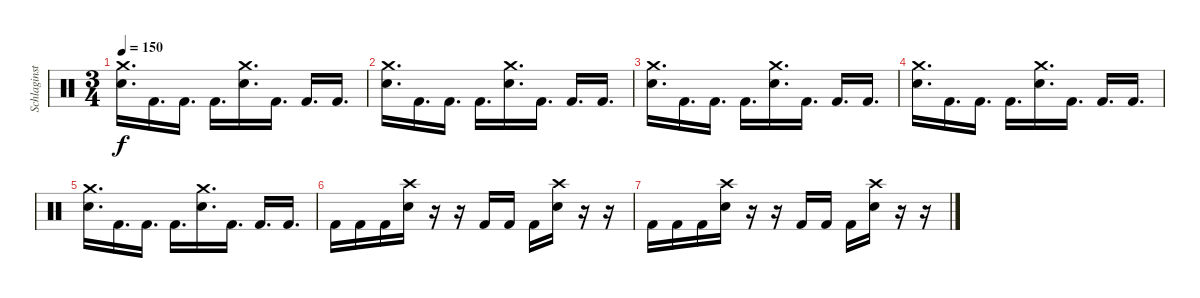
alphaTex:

\track ("Schlaginstrumente - Auswahl" "Schlaginst") {instrument percussion}
\staff {score}
\articulation defaults
\ts (3 4)
\tempo 150
\clef neutral
\ks c
("Crash medium (hit)" "Snare (hit) 2").16{d dy f} "Kick (hit) 2".16{d} "Kick (hit) 2".16{d} "Kick (hit) 2".16{d} ("Crash medium (hit)" "Snare (hit) 2").16{d} "Kick (hit) 2".16{d} "Kick (hit) 2".16{d} "Kick (hit) 2".16{d} |
("Crash medium (hit)" "Snare (hit) 2").16{d} "Kick (hit) 2".16{d} "Kick (hit) 2".16{d} "Kick (hit) 2".16{d} ("Crash medium (hit)" "Snare (hit) 2").16{d} "Kick (hit) 2".16{d} "Kick (hit) 2".16{d} "Kick (hit) 2".16{d} |
("Crash medium (hit)" "Snare (hit) 2").16{d} "Kick (hit) 2".16{d} "Kick (hit) 2".16{d} "Kick (hit) 2".16{d} ("Crash medium (hit)" "Snare (hit) 2").16{d} "Kick (hit) 2".16{d} "Kick (hit) 2".16{d} "Kick (hit) 2".16{d} |
("Crash medium (hit)" "Snare (hit) 2").16{d} "Kick (hit) 2".16{d} "Kick (hit) 2".16{d} "Kick (hit) 2".16{d} ("Crash medium (hit)" "Snare (hit) 2").16{d} "Kick (hit) 2".16{d} "Kick (hit) 2".16{d} "Kick (hit) 2".16{d} |
("Crash medium (hit)" "Snare (hit) 2").16{d} "Kick (hit) 2".16{d} "Kick (hit) 2".16{d} "Kick (hit) 2".16{d} ("Crash medium (hit)" "Snare (hit) 2").16{d} "Kick (hit) 2".16{d} "Kick (hit) 2".16{d} "Kick (hit) 2".16{d} |
"Kick (hit) 2".16 "Kick (hit) 2".16 "Kick (hit) 2".16 ("Crash high (hit)" "Snare (hit) 2").16 r.16 r.16 "Kick (hit) 2".16 "Kick (hit) 2".16 "Kick (hit) 2".16 ("Crash high (hit)" "Snare (hit) 2").16 r.16 r.16 |
"Kick (hit) 2".16 "Kick (hit) 2".16 "Kick (hit) 2".16 ("Crash high (hit)" "Snare (hit) 2").16 r.16 r.16 "Kick (hit) 2".16 "Kick (hit) 2".16 "Kick (hit) 2".16 ("Crash high (hit)" "Snare (hit) 2").16 r.16 r.16
